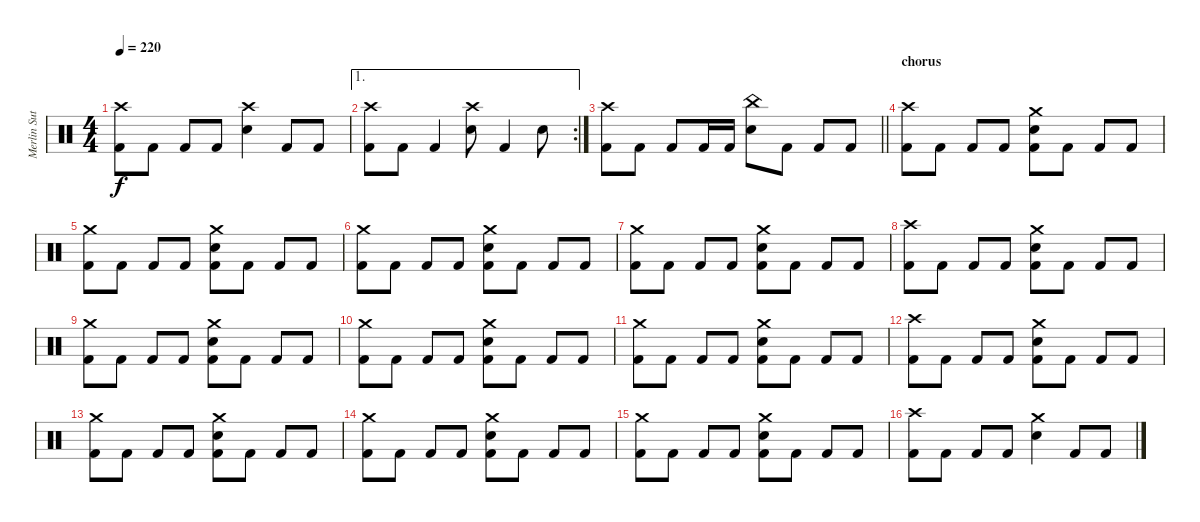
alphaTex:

\track ("Merlin Sutter" "Merlin Sut") {instrument percussion}
\staff {score}
\articulation defaults
\ts (4 4)
\tempo 220
\clef neutral
\ks c
("Crash high (hit)" "Kick (hit) 2").8{dy f} "Kick (hit) 2".8 "Kick (hit) 2".8 "Kick (hit) 2".8 ("Crash high (hit)" "Snare (hit) 2").4 "Kick (hit) 2".8 "Kick (hit) 2".8 |
\ae 1
\rc 2
("Crash high (hit)" "Kick (hit) 2").8 "Kick (hit) 2".8 "Kick (hit) 2".4 ("Crash high (hit)" "Snare (hit) 2").8 "Kick (hit) 2".4 "Snare (hit) 2".8 |
\barLineRight lightlight
("Crash high (hit)" "Kick (hit) 2").8 "Kick (hit) 2".8 "Kick (hit) 2".8 "Kick (hit) 2".16 "Kick (hit) 2".16 ("China (hit)" "Snare (hit) 2").8 "Kick (hit) 2".8 "Kick (hit) 2".8 "Kick (hit) 2".8 |
\section ("" "chorus")
("Crash high (hit)" "Kick (hit) 2").8 "Kick (hit) 2".8 "Kick (hit) 2".8 "Kick (hit) 2".8 ("Crash medium (hit)" "Snare (hit) 2" "Kick (hit) 2").8 "Kick (hit) 2".8 "Kick (hit) 2".8 "Kick (hit) 2".8 |
("Crash medium (hit)" "Kick (hit) 2").8 "Kick (hit) 2".8 "Kick (hit) 2".8 "Kick (hit) 2".8 ("Crash medium (hit)" "Snare (hit) 2" "Kick (hit) 2").8 "Kick (hit) 2".8 "Kick (hit) 2".8 "Kick (hit) 2".8 |
("Crash medium (hit)" "Kick (hit) 2").8 "Kick (hit) 2".8 "Kick (hit) 2".8 "Kick (hit) 2".8 ("Crash medium (hit)" "Snare (hit) 2" "Kick (hit) 2").8 "Kick (hit) 2".8 "Kick (hit) 2".8 "Kick (hit) 2".8 |
("Crash medium (hit)" "Kick (hit) 2").8 "Kick (hit) 2".8 "Kick (hit) 2".8 "Kick (hit) 2".8 ("Crash medium (hit)" "Snare (hit) 2" "Kick (hit) 2").8 "Kick (hit) 2".8 "Kick (hit) 2".8 "Kick (hit) 2".8 |
("Crash high (hit)" "Kick (hit) 2").8 "Kick (hit) 2".8 "Kick (hit) 2".8 "Kick (hit) 2".8 ("Crash medium (hit)" "Snare (hit) 2" "Kick (hit) 2").8 "Kick (hit) 2".8 "Kick (hit) 2".8 "Kick (hit) 2".8 |
("Crash medium (hit)" "Kick (hit) 2").8 "Kick (hit) 2".8 "Kick (hit) 2".8 "Kick (hit) 2".8 ("Crash medium (hit)" "Snare (hit) 2" "Kick (hit) 2").8 "Kick (hit) 2".8 "Kick (hit) 2".8 "Kick (hit) 2".8 |
("Crash medium (hit)" "Kick (hit) 2").8 "Kick (hit) 2".8 "Kick (hit) 2".8 "Kick (hit) 2".8 ("Crash medium (hit)" "Snare (hit) 2" "Kick (hit) 2").8 "Kick (hit) 2".8 "Kick (hit) 2".8 "Kick (hit) 2".8 |
("Crash medium (hit)" "Kick (hit) 2").8 "Kick (hit) 2".8 "Kick (hit) 2".8 "Kick (hit) 2".8 ("Crash medium (hit)" "Snare (hit) 2" "Kick (hit) 2").8 "Kick (hit) 2".8 "Kick (hit) 2".8 "Kick (hit) 2".8 |
("Crash high (hit)" "Kick (hit) 2").8 "Kick (hit) 2".8 "Kick (hit) 2".8 "Kick (hit) 2".8 ("Crash medium (hit)" "Snare (hit) 2" "Kick (hit) 2").8 "Kick (hit) 2".8 "Kick (hit) 2".8 "Kick (hit) 2".8 |
("Crash medium (hit)" "Kick (hit) 2").8 "Kick (hit) 2".8 "Kick (hit) 2".8 "Kick (hit) 2".8 ("Crash medium (hit)" "Snare (hit) 2" "Kick (hit) 2").8 "Kick (hit) 2".8 "Kick (hit) 2".8 "Kick (hit) 2".8 |
("Crash medium (hit)" "Kick (hit) 2").8 "Kick (hit) 2".8 "Kick (hit) 2".8 "Kick (hit) 2".8 ("Crash medium (hit)" "Snare (hit) 2" "Kick (hit) 2").8 "Kick (hit) 2".8 "Kick (hit) 2".8 "Kick (hit) 2".8 |
("Crash medium (hit)" "Kick (hit) 2").8 "Kick (hit) 2".8 "Kick (hit) 2".8 "Kick (hit) 2".8 ("Crash medium (hit)" "Snare (hit) 2" "Kick (hit) 2").8 "Kick (hit) 2".8 "Kick (hit) 2".8 "Kick (hit) 2".8 |
("Crash high (hit)" "Kick (hit) 2").8 "Kick (hit) 2".8 "Kick (hit) 2".8 "Kick (hit) 2".8 ("Crash medium (hit)" "Snare (hit) 2").4 "Kick (hit) 2".8 "Kick (hit) 2".8
